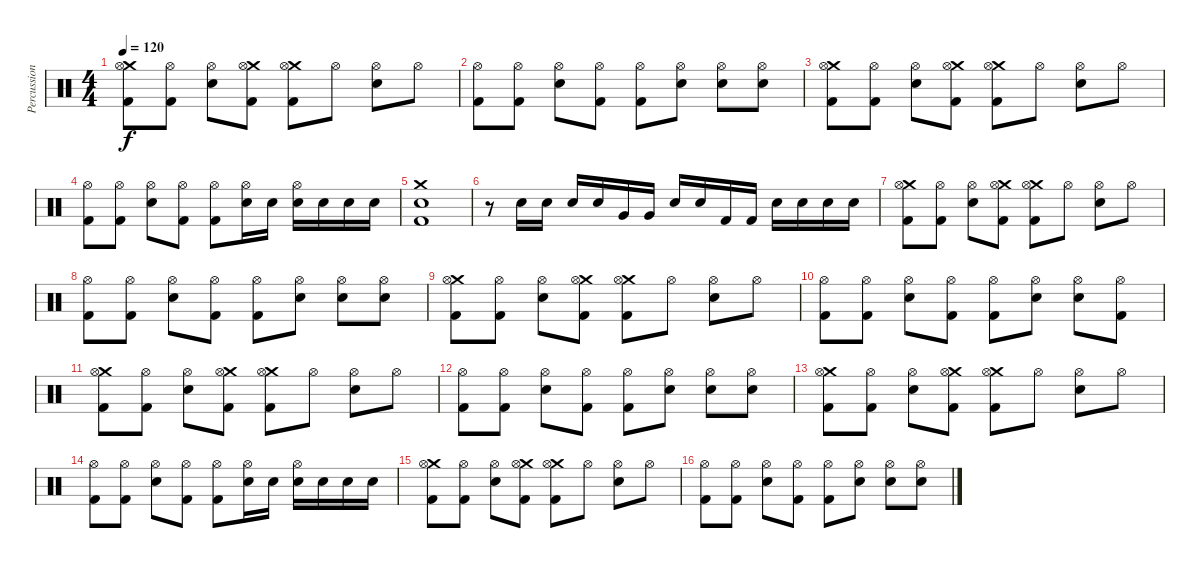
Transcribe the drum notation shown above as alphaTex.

\track ("Percussion" "Percussion") {instrument percussion}
\staff {score}
\articulation defaults
\ts (4 4)
\tempo 120
\clef neutral
\ks c
("Crash medium (hit)" "Hi-Hat (open)" "Kick (hit) 2").8{dy f} ("Hi-Hat (open)" "Kick (hit) 2").8 ("Hi-Hat (open)" "Electric Snare (hit)").8 ("Crash medium (hit)" "Hi-Hat (open)" "Kick (hit) 2").8 ("Crash medium (hit)" "Hi-Hat (open)" "Kick (hit) 2").8 "Hi-Hat (open)".8 ("Hi-Hat (open)" "Electric Snare (hit)").8 "Hi-Hat (open)".8 |
("Hi-Hat (open)" "Kick (hit) 2").8 ("Hi-Hat (open)" "Kick (hit) 2").8 ("Hi-Hat (open)" "Electric Snare (hit)").8 ("Hi-Hat (open)" "Kick (hit) 2").8 ("Hi-Hat (open)" "Kick (hit) 2").8 ("Hi-Hat (open)" "Electric Snare (hit)").8 ("Hi-Hat (open)" "Electric Snare (hit)").8 ("Hi-Hat (open)" "Electric Snare (hit)").8 |
("Crash medium (hit)" "Hi-Hat (open)" "Kick (hit) 2").8 ("Hi-Hat (open)" "Kick (hit) 2").8 ("Hi-Hat (open)" "Electric Snare (hit)").8 ("Crash medium (hit)" "Hi-Hat (open)" "Kick (hit) 2").8 ("Crash medium (hit)" "Hi-Hat (open)" "Kick (hit) 2").8 "Hi-Hat (open)".8 ("Hi-Hat (open)" "Electric Snare (hit)").8 "Hi-Hat (open)".8 |
("Hi-Hat (open)" "Kick (hit) 2").8 ("Hi-Hat (open)" "Kick (hit) 2").8 ("Hi-Hat (open)" "Electric Snare (hit)").8 ("Hi-Hat (open)" "Kick (hit) 2").8 ("Hi-Hat (open)" "Kick (hit) 2").8 ("Hi-Hat (open)" "Electric Snare (hit)").16 "Electric Snare (hit)".16 ("Hi-Hat (open)" "Electric Snare (hit)").16 "Electric Snare (hit)".16 "Electric Snare (hit)".16 "Electric Snare (hit)".16 |
("Crash medium (hit)" "Electric Snare (hit)" "Kick (hit) 2").1 |
r.8 "Electric Snare (hit)".16 "Electric Snare (hit)".16 "Electric Snare (hit)".16 "Electric Snare (hit)".16 "Very Low Tom (hit)".16 "Very Low Tom (hit)".16 "Electric Snare (hit)".16 "Electric Snare (hit)".16 "Kick (hit) 2".16 "Kick (hit) 2".16 "Electric Snare (hit)".16 "Electric Snare (hit)".16 "Electric Snare (hit)".16 "Electric Snare (hit)".16 |
("Crash medium (hit)" "Hi-Hat (open)" "Kick (hit) 2").8 ("Hi-Hat (open)" "Kick (hit) 2").8 ("Hi-Hat (open)" "Electric Snare (hit)").8 ("Crash medium (hit)" "Hi-Hat (open)" "Kick (hit) 2").8 ("Crash medium (hit)" "Hi-Hat (open)" "Kick (hit) 2").8 "Hi-Hat (open)".8 ("Hi-Hat (open)" "Electric Snare (hit)").8 "Hi-Hat (open)".8 |
("Hi-Hat (open)" "Kick (hit) 2").8 ("Hi-Hat (open)" "Kick (hit) 2").8 ("Hi-Hat (open)" "Electric Snare (hit)").8 ("Hi-Hat (open)" "Kick (hit) 2").8 ("Hi-Hat (open)" "Kick (hit) 2").8 ("Hi-Hat (open)" "Electric Snare (hit)").8 ("Hi-Hat (open)" "Electric Snare (hit)").8 ("Hi-Hat (open)" "Electric Snare (hit)").8 |
("Crash medium (hit)" "Hi-Hat (open)" "Kick (hit) 2").8 ("Hi-Hat (open)" "Kick (hit) 2").8 ("Hi-Hat (open)" "Electric Snare (hit)").8 ("Crash medium (hit)" "Hi-Hat (open)" "Kick (hit) 2").8 ("Crash medium (hit)" "Hi-Hat (open)" "Kick (hit) 2").8 "Hi-Hat (open)".8 ("Hi-Hat (open)" "Electric Snare (hit)").8 "Hi-Hat (open)".8 |
("Hi-Hat (open)" "Kick (hit) 2").8 ("Hi-Hat (open)" "Kick (hit) 2").8 ("Hi-Hat (open)" "Electric Snare (hit)").8 ("Hi-Hat (open)" "Kick (hit) 2").8 ("Hi-Hat (open)" "Kick (hit) 2").8 ("Hi-Hat (open)" "Electric Snare (hit)").8 ("Hi-Hat (open)" "Electric Snare (hit)").8 ("Hi-Hat (open)" "Kick (hit) 2").8 |
("Crash medium (hit)" "Hi-Hat (open)" "Kick (hit) 2").8 ("Hi-Hat (open)" "Kick (hit) 2").8 ("Hi-Hat (open)" "Electric Snare (hit)").8 ("Crash medium (hit)" "Hi-Hat (open)" "Kick (hit) 2").8 ("Crash medium (hit)" "Hi-Hat (open)" "Kick (hit) 2").8 "Hi-Hat (open)".8 ("Hi-Hat (open)" "Electric Snare (hit)").8 "Hi-Hat (open)".8 |
("Hi-Hat (open)" "Kick (hit) 2").8 ("Hi-Hat (open)" "Kick (hit) 2").8 ("Hi-Hat (open)" "Electric Snare (hit)").8 ("Hi-Hat (open)" "Kick (hit) 2").8 ("Hi-Hat (open)" "Kick (hit) 2").8 ("Hi-Hat (open)" "Electric Snare (hit)").8 ("Hi-Hat (open)" "Electric Snare (hit)").8 ("Hi-Hat (open)" "Electric Snare (hit)").8 |
("Crash medium (hit)" "Hi-Hat (open)" "Kick (hit) 2").8 ("Hi-Hat (open)" "Kick (hit) 2").8 ("Hi-Hat (open)" "Electric Snare (hit)").8 ("Crash medium (hit)" "Hi-Hat (open)" "Kick (hit) 2").8 ("Crash medium (hit)" "Hi-Hat (open)" "Kick (hit) 2").8 "Hi-Hat (open)".8 ("Hi-Hat (open)" "Electric Snare (hit)").8 "Hi-Hat (open)".8 |
("Hi-Hat (open)" "Kick (hit) 2").8 ("Hi-Hat (open)" "Kick (hit) 2").8 ("Hi-Hat (open)" "Electric Snare (hit)").8 ("Hi-Hat (open)" "Kick (hit) 2").8 ("Hi-Hat (open)" "Kick (hit) 2").8 ("Hi-Hat (open)" "Electric Snare (hit)").16 "Electric Snare (hit)".16 ("Hi-Hat (open)" "Electric Snare (hit)").16 "Electric Snare (hit)".16 "Electric Snare (hit)".16 "Electric Snare (hit)".16 |
("Crash medium (hit)" "Hi-Hat (open)" "Kick (hit) 2").8 ("Hi-Hat (open)" "Kick (hit) 2").8 ("Hi-Hat (open)" "Electric Snare (hit)").8 ("Crash medium (hit)" "Hi-Hat (open)" "Kick (hit) 2").8 ("Crash medium (hit)" "Hi-Hat (open)" "Kick (hit) 2").8 "Hi-Hat (open)".8 ("Hi-Hat (open)" "Electric Snare (hit)").8 "Hi-Hat (open)".8 |
("Hi-Hat (open)" "Kick (hit) 2").8 ("Hi-Hat (open)" "Kick (hit) 2").8 ("Hi-Hat (open)" "Electric Snare (hit)").8 ("Hi-Hat (open)" "Kick (hit) 2").8 ("Hi-Hat (open)" "Kick (hit) 2").8 ("Hi-Hat (open)" "Electric Snare (hit)").8 ("Hi-Hat (open)" "Electric Snare (hit)").8 ("Hi-Hat (open)" "Electric Snare (hit)").8
